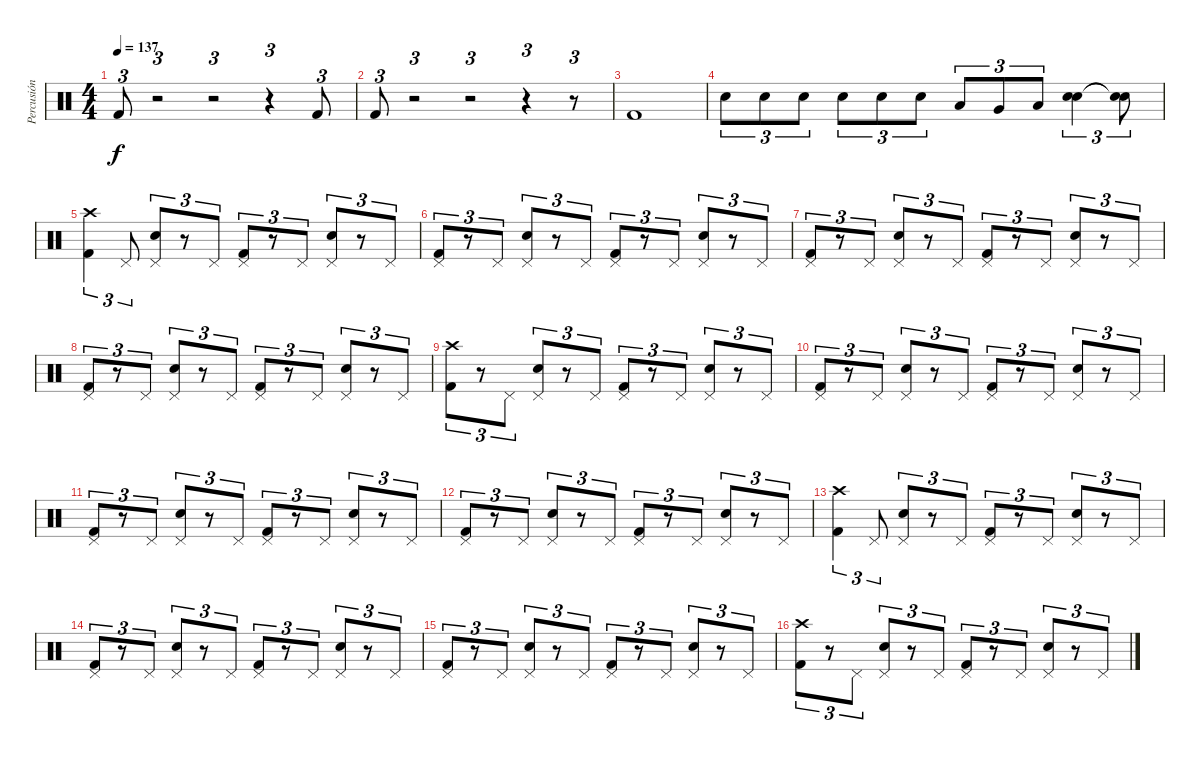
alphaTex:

\track ("Percusión" "Percusión") {instrument percussion}
\staff {score}
\articulation defaults
\ts (4 4)
\tempo 137
\clef neutral
\ks c "Kick (hit) 2".8{tu (3 2) dy f}
r.2{tu (3 2)} r.2{tu (3 2)} r.4{tu (3 2)} "Kick (hit) 2".8{tu (3 2)} |
"Kick (hit) 2".8{tu (3 2)} r.2{tu (3 2)} r.2{tu (3 2)} r.4{tu (3 2)} r.8{tu (3 2)} |
"Kick (hit) 2".1 |
"Electric Snare (hit)".8{tu (3 2)} "Electric Snare (hit)".8{tu (3 2)} "Electric Snare (hit)".8{tu (3 2)} "Electric Snare (hit)".8{tu (3 2)} "Electric Snare (hit)".8{tu (3 2)} "Electric Snare (hit)".8{tu (3 2)} "Low Tom (hit)".8{tu (3 2)} "Very Low Tom (hit)".8{tu (3 2)} "Low Floor Tom (hit)".8{tu (3 2)} ("Electric Snare (hit)" "Electric Snare (hit)").4{tu (3 2) bd 480} ("Electric Snare (hit)"{t} "Electric Snare (hit)"{t}).8{tu (3 2)} |
("Kick (hit) 2" "Crash high (hit)").4{tu (3 2)} "Pedal Hi-Hat (hit)".8{tu (3 2)} ("Electric Snare (hit)" "Pedal Hi-Hat (hit)").8{tu (3 2)} r.8{tu (3 2)} "Pedal Hi-Hat (hit)".8{tu (3 2)} ("Kick (hit) 2" "Pedal Hi-Hat (hit)").8{tu (3 2)} r.8{tu (3 2)} "Pedal Hi-Hat (hit)".8{tu (3 2)} ("Electric Snare (hit)" "Pedal Hi-Hat (hit)").8{tu (3 2)} r.8{tu (3 2)} "Pedal Hi-Hat (hit)".8{tu (3 2)} |
("Kick (hit) 2" "Pedal Hi-Hat (hit)").8{tu (3 2)} r.8{tu (3 2)} "Pedal Hi-Hat (hit)".8{tu (3 2)} ("Electric Snare (hit)" "Pedal Hi-Hat (hit)").8{tu (3 2)} r.8{tu (3 2)} "Pedal Hi-Hat (hit)".8{tu (3 2)} ("Kick (hit) 2" "Pedal Hi-Hat (hit)").8{tu (3 2)} r.8{tu (3 2)} "Pedal Hi-Hat (hit)".8{tu (3 2)} ("Electric Snare (hit)" "Pedal Hi-Hat (hit)").8{tu (3 2)} r.8{tu (3 2)} "Pedal Hi-Hat (hit)".8{tu (3 2)} |
("Kick (hit) 2" "Pedal Hi-Hat (hit)").8{tu (3 2)} r.8{tu (3 2)} "Pedal Hi-Hat (hit)".8{tu (3 2)} ("Electric Snare (hit)" "Pedal Hi-Hat (hit)").8{tu (3 2)} r.8{tu (3 2)} "Pedal Hi-Hat (hit)".8{tu (3 2)} ("Kick (hit) 2" "Pedal Hi-Hat (hit)").8{tu (3 2)} r.8{tu (3 2)} "Pedal Hi-Hat (hit)".8{tu (3 2)} ("Electric Snare (hit)" "Pedal Hi-Hat (hit)").8{tu (3 2)} r.8{tu (3 2)} "Pedal Hi-Hat (hit)".8{tu (3 2)} |
("Kick (hit) 2" "Pedal Hi-Hat (hit)").8{tu (3 2)} r.8{tu (3 2)} "Pedal Hi-Hat (hit)".8{tu (3 2)} ("Electric Snare (hit)" "Pedal Hi-Hat (hit)").8{tu (3 2)} r.8{tu (3 2)} "Pedal Hi-Hat (hit)".8{tu (3 2)} ("Kick (hit) 2" "Pedal Hi-Hat (hit)").8{tu (3 2)} r.8{tu (3 2)} "Pedal Hi-Hat (hit)".8{tu (3 2)} ("Electric Snare (hit)" "Pedal Hi-Hat (hit)").8{tu (3 2)} r.8{tu (3 2)} "Pedal Hi-Hat (hit)".8{tu (3 2)} |
("Kick (hit) 2" "Crash high (hit)").8{tu (3 2)} r.8{tu (3 2)} "Pedal Hi-Hat (hit)".8{tu (3 2)} ("Electric Snare (hit)" "Pedal Hi-Hat (hit)").8{tu (3 2)} r.8{tu (3 2)} "Pedal Hi-Hat (hit)".8{tu (3 2)} ("Kick (hit) 2" "Pedal Hi-Hat (hit)").8{tu (3 2)} r.8{tu (3 2)} "Pedal Hi-Hat (hit)".8{tu (3 2)} ("Electric Snare (hit)" "Pedal Hi-Hat (hit)").8{tu (3 2)} r.8{tu (3 2)} "Pedal Hi-Hat (hit)".8{tu (3 2)} |
("Kick (hit) 2" "Pedal Hi-Hat (hit)").8{tu (3 2)} r.8{tu (3 2)} "Pedal Hi-Hat (hit)".8{tu (3 2)} ("Electric Snare (hit)" "Pedal Hi-Hat (hit)").8{tu (3 2)} r.8{tu (3 2)} "Pedal Hi-Hat (hit)".8{tu (3 2)} ("Kick (hit) 2" "Pedal Hi-Hat (hit)").8{tu (3 2)} r.8{tu (3 2)} "Pedal Hi-Hat (hit)".8{tu (3 2)} ("Electric Snare (hit)" "Pedal Hi-Hat (hit)").8{tu (3 2)} r.8{tu (3 2)} "Pedal Hi-Hat (hit)".8{tu (3 2)} |
("Kick (hit) 2" "Pedal Hi-Hat (hit)").8{tu (3 2)} r.8{tu (3 2)} "Pedal Hi-Hat (hit)".8{tu (3 2)} ("Electric Snare (hit)" "Pedal Hi-Hat (hit)").8{tu (3 2)} r.8{tu (3 2)} "Pedal Hi-Hat (hit)".8{tu (3 2)} ("Kick (hit) 2" "Pedal Hi-Hat (hit)").8{tu (3 2)} r.8{tu (3 2)} "Pedal Hi-Hat (hit)".8{tu (3 2)} ("Electric Snare (hit)" "Pedal Hi-Hat (hit)").8{tu (3 2)} r.8{tu (3 2)} "Pedal Hi-Hat (hit)".8{tu (3 2)} |
("Kick (hit) 2" "Pedal Hi-Hat (hit)").8{tu (3 2)} r.8{tu (3 2)} "Pedal Hi-Hat (hit)".8{tu (3 2)} ("Electric Snare (hit)" "Pedal Hi-Hat (hit)").8{tu (3 2)} r.8{tu (3 2)} "Pedal Hi-Hat (hit)".8{tu (3 2)} ("Kick (hit) 2" "Pedal Hi-Hat (hit)").8{tu (3 2)} r.8{tu (3 2)} "Pedal Hi-Hat (hit)".8{tu (3 2)} ("Electric Snare (hit)" "Pedal Hi-Hat (hit)").8{tu (3 2)} r.8{tu (3 2)} "Pedal Hi-Hat (hit)".8{tu (3 2)} |
("Kick (hit) 2" "Crash high (hit)").4{tu (3 2)} "Pedal Hi-Hat (hit)".8{tu (3 2)} ("Electric Snare (hit)" "Pedal Hi-Hat (hit)").8{tu (3 2)} r.8{tu (3 2)} "Pedal Hi-Hat (hit)".8{tu (3 2)} ("Kick (hit) 2" "Pedal Hi-Hat (hit)").8{tu (3 2)} r.8{tu (3 2)} "Pedal Hi-Hat (hit)".8{tu (3 2)} ("Electric Snare (hit)" "Pedal Hi-Hat (hit)").8{tu (3 2)} r.8{tu (3 2)} "Pedal Hi-Hat (hit)".8{tu (3 2)} |
("Kick (hit) 2" "Pedal Hi-Hat (hit)").8{tu (3 2)} r.8{tu (3 2)} "Pedal Hi-Hat (hit)".8{tu (3 2)} ("Electric Snare (hit)" "Pedal Hi-Hat (hit)").8{tu (3 2)} r.8{tu (3 2)} "Pedal Hi-Hat (hit)".8{tu (3 2)} ("Kick (hit) 2" "Pedal Hi-Hat (hit)").8{tu (3 2)} r.8{tu (3 2)} "Pedal Hi-Hat (hit)".8{tu (3 2)} ("Electric Snare (hit)" "Pedal Hi-Hat (hit)").8{tu (3 2)} r.8{tu (3 2)} "Pedal Hi-Hat (hit)".8{tu (3 2)} |
("Kick (hit) 2" "Pedal Hi-Hat (hit)").8{tu (3 2)} r.8{tu (3 2)} "Pedal Hi-Hat (hit)".8{tu (3 2)} ("Electric Snare (hit)" "Pedal Hi-Hat (hit)").8{tu (3 2)} r.8{tu (3 2)} "Pedal Hi-Hat (hit)".8{tu (3 2)} ("Kick (hit) 2" "Pedal Hi-Hat (hit)").8{tu (3 2)} r.8{tu (3 2)} "Pedal Hi-Hat (hit)".8{tu (3 2)} ("Electric Snare (hit)" "Pedal Hi-Hat (hit)").8{tu (3 2)} r.8{tu (3 2)} "Pedal Hi-Hat (hit)".8{tu (3 2)} |
("Kick (hit) 2" "Crash high (hit)").8{tu (3 2)} r.8{tu (3 2)} "Pedal Hi-Hat (hit)".8{tu (3 2)} ("Electric Snare (hit)" "Pedal Hi-Hat (hit)").8{tu (3 2)} r.8{tu (3 2)} "Pedal Hi-Hat (hit)".8{tu (3 2)} ("Kick (hit) 2" "Pedal Hi-Hat (hit)").8{tu (3 2)} r.8{tu (3 2)} "Pedal Hi-Hat (hit)".8{tu (3 2)} ("Electric Snare (hit)" "Pedal Hi-Hat (hit)").8{tu (3 2)} r.8{tu (3 2)} "Pedal Hi-Hat (hit)".8{tu (3 2)}
